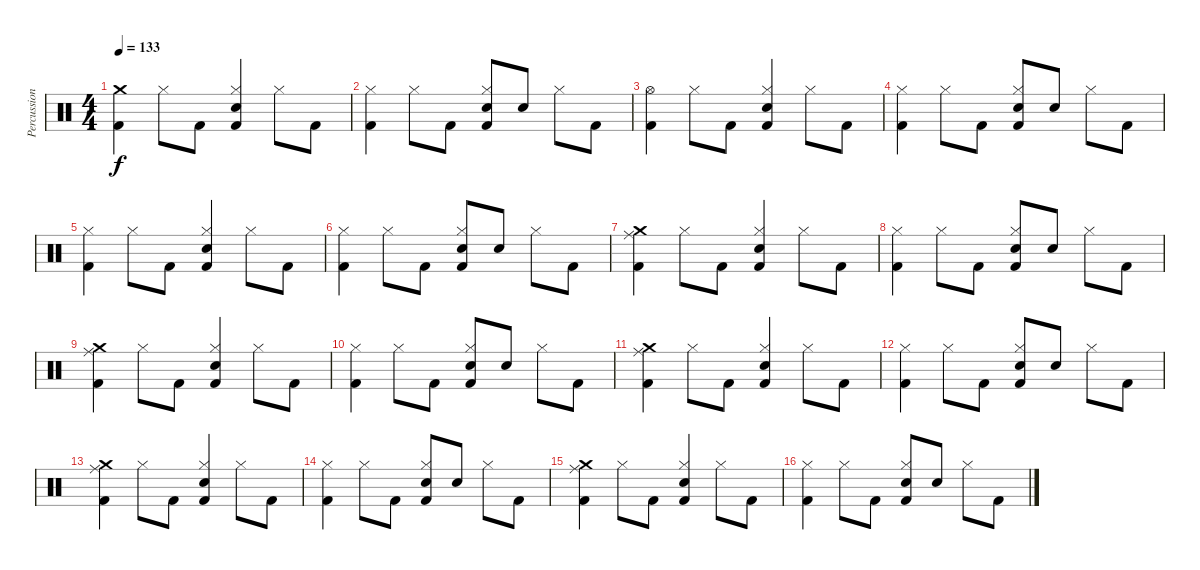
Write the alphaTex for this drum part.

\track ("Percussion" "Percussion") {instrument percussion}
\staff {score}
\articulation defaults
\ts (4 4)
\tempo 133
\clef neutral
\ks c
("Crash medium (hit)" "Kick (hit) 2").4{dy f} "Hi-Hat (closed)".8 "Kick (hit) 2".8 ("Hi-Hat (closed)" "Snare (hit) 2" "Kick (hit) 2").4 "Hi-Hat (closed)".8 "Kick (hit) 2".8 |
("Hi-Hat (closed)" "Kick (hit) 2").4 "Hi-Hat (closed)".8 "Kick (hit) 2".8 ("Hi-Hat (closed)" "Snare (hit) 2" "Kick (hit) 2").8 "Snare (hit) 2".8 "Hi-Hat (closed)".8 "Kick (hit) 2".8 |
("Hi-Hat (open)" "Kick (hit) 2").4 "Hi-Hat (closed)".8 "Kick (hit) 2".8 ("Hi-Hat (closed)" "Snare (hit) 2" "Kick (hit) 2").4 "Hi-Hat (closed)".8 "Kick (hit) 2".8 |
("Hi-Hat (closed)" "Kick (hit) 2").4 "Hi-Hat (closed)".8 "Kick (hit) 2".8 ("Hi-Hat (closed)" "Snare (hit) 2" "Kick (hit) 2").8 "Snare (hit) 2".8 "Hi-Hat (closed)".8 "Kick (hit) 2".8 |
("Hi-Hat (closed)" "Kick (hit) 2").4 "Hi-Hat (closed)".8 "Kick (hit) 2".8 ("Hi-Hat (closed)" "Snare (hit) 2" "Kick (hit) 2").4 "Hi-Hat (closed)".8 "Kick (hit) 2".8 |
("Hi-Hat (closed)" "Kick (hit) 2").4 "Hi-Hat (closed)".8 "Kick (hit) 2".8 ("Hi-Hat (closed)" "Snare (hit) 2" "Kick (hit) 2").8 "Snare (hit) 2".8 "Hi-Hat (closed)".8 "Kick (hit) 2".8 |
("Crash medium (hit)" "Ride (middle)" "Kick (hit) 2").4 "Hi-Hat (closed)".8 "Kick (hit) 2".8 ("Hi-Hat (closed)" "Snare (hit) 2" "Kick (hit) 2").4 "Hi-Hat (closed)".8 "Kick (hit) 2".8 |
("Hi-Hat (closed)" "Kick (hit) 2").4 "Hi-Hat (closed)".8 "Kick (hit) 2".8 ("Hi-Hat (closed)" "Snare (hit) 2" "Kick (hit) 2").8 "Snare (hit) 2".8 "Hi-Hat (closed)".8 "Kick (hit) 2".8 |
("Crash medium (hit)" "Ride (middle)" "Kick (hit) 2").4 "Hi-Hat (closed)".8 "Kick (hit) 2".8 ("Hi-Hat (closed)" "Snare (hit) 2" "Kick (hit) 2").4 "Hi-Hat (closed)".8 "Kick (hit) 2".8 |
("Hi-Hat (closed)" "Kick (hit) 2").4 "Hi-Hat (closed)".8 "Kick (hit) 2".8 ("Hi-Hat (closed)" "Snare (hit) 2" "Kick (hit) 2").8 "Snare (hit) 2".8 "Hi-Hat (closed)".8 "Kick (hit) 2".8 |
("Crash medium (hit)" "Ride (middle)" "Kick (hit) 2").4 "Hi-Hat (closed)".8 "Kick (hit) 2".8 ("Hi-Hat (closed)" "Snare (hit) 2" "Kick (hit) 2").4 "Hi-Hat (closed)".8 "Kick (hit) 2".8 |
("Hi-Hat (closed)" "Kick (hit) 2").4 "Hi-Hat (closed)".8 "Kick (hit) 2".8 ("Hi-Hat (closed)" "Snare (hit) 2" "Kick (hit) 2").8 "Snare (hit) 2".8 "Hi-Hat (closed)".8 "Kick (hit) 2".8 |
("Crash medium (hit)" "Ride (middle)" "Kick (hit) 2").4 "Hi-Hat (closed)".8 "Kick (hit) 2".8 ("Hi-Hat (closed)" "Snare (hit) 2" "Kick (hit) 2").4 "Hi-Hat (closed)".8 "Kick (hit) 2".8 |
("Hi-Hat (closed)" "Kick (hit) 2").4 "Hi-Hat (closed)".8 "Kick (hit) 2".8 ("Hi-Hat (closed)" "Snare (hit) 2" "Kick (hit) 2").8 "Snare (hit) 2".8 "Hi-Hat (closed)".8 "Kick (hit) 2".8 |
("Crash medium (hit)" "Ride (middle)" "Kick (hit) 2").4 "Hi-Hat (closed)".8 "Kick (hit) 2".8 ("Hi-Hat (closed)" "Snare (hit) 2" "Kick (hit) 2").4 "Hi-Hat (closed)".8 "Kick (hit) 2".8 |
("Hi-Hat (closed)" "Kick (hit) 2").4 "Hi-Hat (closed)".8 "Kick (hit) 2".8 ("Hi-Hat (closed)" "Snare (hit) 2" "Kick (hit) 2").8 "Snare (hit) 2".8 "Hi-Hat (closed)".8 "Kick (hit) 2".8
